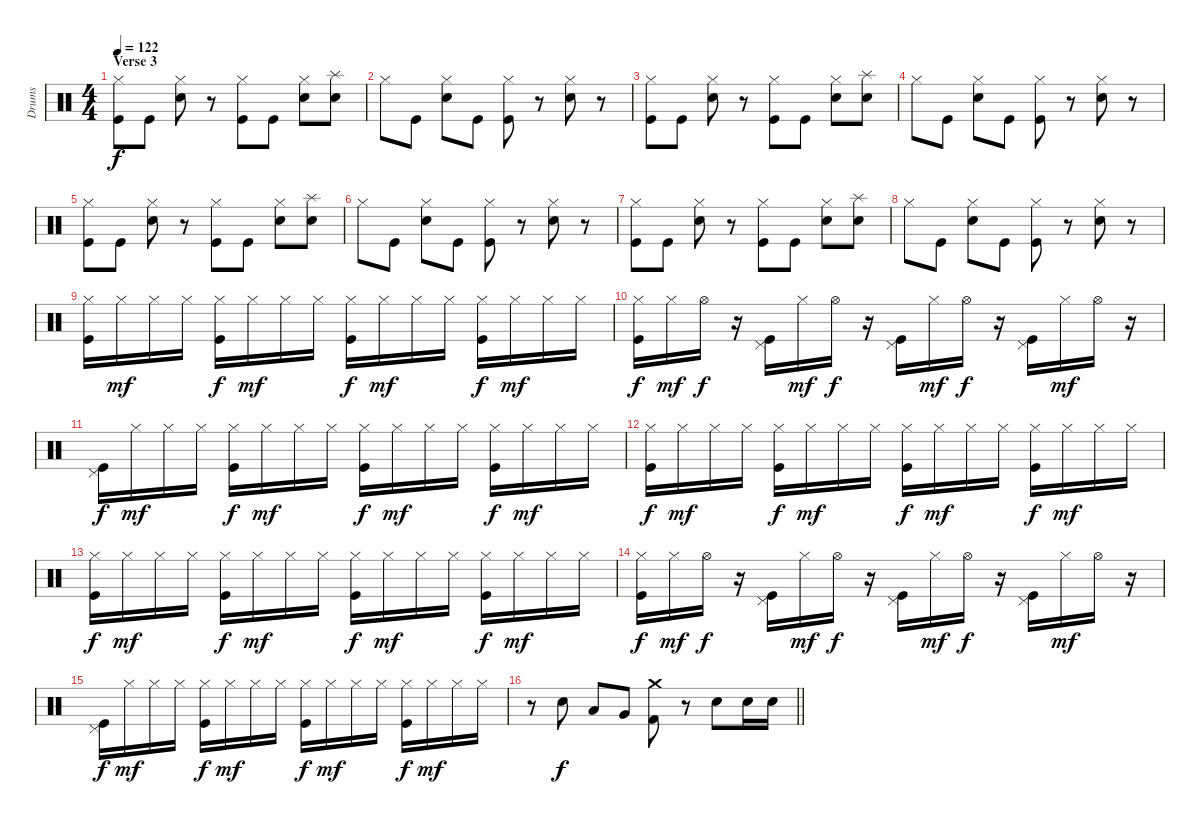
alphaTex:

\track ("Drums" "Drums") {instrument percussion}
\staff {score}
\articulation defaults
\ts (4 4)
\section ("" "Verse 3")
\tempo 122
\clef neutral
\ks c
("Hi-Hat (closed)" "Kick (hit)").8{dy f} "Kick (hit)".8 ("Hi-Hat (closed)" "Snare (hit) 2").8 r.8 ("Hi-Hat (closed)" "Kick (hit)").8 "Kick (hit)".8 ("Hi-Hat (closed)" "Hand Clap (hit)").8 ("Splash (hit)" "Electric Snare (hit)").8 |
"Hi-Hat (closed)".8 "Kick (hit)".8 ("Hi-Hat (closed)" "Snare (hit) 2").8 "Kick (hit)".8 ("Hi-Hat (closed)" "Kick (hit)").8 r.8 ("Hi-Hat (closed)" "Snare (hit) 2").8 r.8 |
("Hi-Hat (closed)" "Kick (hit)").8 "Kick (hit)".8 ("Hi-Hat (closed)" "Snare (hit) 2").8 r.8 ("Hi-Hat (closed)" "Kick (hit)").8 "Kick (hit)".8 ("Hi-Hat (closed)" "Hand Clap (hit)").8 ("Splash (hit)" "Electric Snare (hit)").8 |
"Hi-Hat (closed)".8 "Kick (hit)".8 ("Hi-Hat (closed)" "Snare (hit) 2").8 "Kick (hit)".8 ("Hi-Hat (closed)" "Kick (hit)").8 r.8 ("Hi-Hat (closed)" "Snare (hit) 2").8 r.8 |
("Hi-Hat (closed)" "Kick (hit)").8 "Kick (hit)".8 ("Hi-Hat (closed)" "Snare (hit) 2").8 r.8 ("Hi-Hat (closed)" "Kick (hit)").8 "Kick (hit)".8 ("Hi-Hat (closed)" "Hand Clap (hit)").8 ("Splash (hit)" "Electric Snare (hit)").8 |
"Hi-Hat (closed)".8 "Kick (hit)".8 ("Hi-Hat (closed)" "Snare (hit) 2").8 "Kick (hit)".8 ("Hi-Hat (closed)" "Kick (hit)").8 r.8 ("Hi-Hat (closed)" "Snare (hit) 2").8 r.8 |
("Hi-Hat (closed)" "Kick (hit)").8 "Kick (hit)".8 ("Hi-Hat (closed)" "Snare (hit) 2").8 r.8 ("Hi-Hat (closed)" "Kick (hit)").8 "Kick (hit)".8 ("Hi-Hat (closed)" "Hand Clap (hit)").8 ("Splash (hit)" "Electric Snare (hit)").8 |
"Hi-Hat (closed)".8 "Kick (hit)".8 ("Hi-Hat (closed)" "Snare (hit) 2").8 "Kick (hit)".8 ("Hi-Hat (closed)" "Kick (hit)").8 r.8 ("Hi-Hat (closed)" "Snare (hit) 2").8 r.8 |
("Hi-Hat (closed)" "Kick (hit)").16 "Hi-Hat (closed)".16{dy mf} "Hi-Hat (closed)".16 "Hi-Hat (closed)".16 ("Hi-Hat (closed)" "Kick (hit)").16{dy f} "Hi-Hat (closed)".16{dy mf} "Hi-Hat (closed)".16 "Hi-Hat (closed)".16 ("Hi-Hat (closed)" "Kick (hit)").16{dy f} "Hi-Hat (closed)".16{dy mf} "Hi-Hat (closed)".16 "Hi-Hat (closed)".16 ("Hi-Hat (closed)" "Kick (hit)").16{dy f} "Hi-Hat (closed)".16{dy mf} "Hi-Hat (closed)".16 "Hi-Hat (closed)".16 |
("Hi-Hat (closed)" "Kick (hit)").16{dy f} "Hi-Hat (closed)".16{dy mf} "Hi-Hat (open)".16{dy f} r.16 ("Pedal Hi-Hat (hit)" "Kick (hit)").16 "Hi-Hat (closed)".16{dy mf} "Hi-Hat (open)".16{dy f} r.16 ("Pedal Hi-Hat (hit)" "Kick (hit)").16 "Hi-Hat (closed)".16{dy mf} "Hi-Hat (open)".16{dy f} r.16 ("Pedal Hi-Hat (hit)" "Kick (hit)").16 "Hi-Hat (closed)".16{dy mf} "Hi-Hat (open)".16 r.16 |
("Pedal Hi-Hat (hit)" "Kick (hit)").16{dy f} "Hi-Hat (closed)".16{dy mf} "Hi-Hat (closed)".16 "Hi-Hat (closed)".16 ("Hi-Hat (closed)" "Kick (hit)").16{dy f} "Hi-Hat (closed)".16{dy mf} "Hi-Hat (closed)".16 "Hi-Hat (closed)".16 ("Hi-Hat (closed)" "Kick (hit)").16{dy f} "Hi-Hat (closed)".16{dy mf} "Hi-Hat (closed)".16 "Hi-Hat (closed)".16 ("Hi-Hat (closed)" "Kick (hit)").16{dy f} "Hi-Hat (closed)".16{dy mf} "Hi-Hat (closed)".16 "Hi-Hat (closed)".16 |
("Hi-Hat (closed)" "Kick (hit)").16{dy f} "Hi-Hat (closed)".16{dy mf} "Hi-Hat (closed)".16 "Hi-Hat (closed)".16 ("Hi-Hat (closed)" "Kick (hit)").16{dy f} "Hi-Hat (closed)".16{dy mf} "Hi-Hat (closed)".16 "Hi-Hat (closed)".16 ("Hi-Hat (closed)" "Kick (hit)").16{dy f} "Hi-Hat (closed)".16{dy mf} "Hi-Hat (closed)".16 "Hi-Hat (closed)".16 ("Hi-Hat (closed)" "Kick (hit)").16{dy f} "Hi-Hat (closed)".16{dy mf} "Hi-Hat (closed)".16 "Hi-Hat (closed)".16 |
("Hi-Hat (closed)" "Kick (hit)").16{dy f} "Hi-Hat (closed)".16{dy mf} "Hi-Hat (closed)".16 "Hi-Hat (closed)".16 ("Hi-Hat (closed)" "Kick (hit)").16{dy f} "Hi-Hat (closed)".16{dy mf} "Hi-Hat (closed)".16 "Hi-Hat (closed)".16 ("Hi-Hat (closed)" "Kick (hit)").16{dy f} "Hi-Hat (closed)".16{dy mf} "Hi-Hat (closed)".16 "Hi-Hat (closed)".16 ("Hi-Hat (closed)" "Kick (hit)").16{dy f} "Hi-Hat (closed)".16{dy mf} "Hi-Hat (closed)".16 "Hi-Hat (closed)".16 |
("Hi-Hat (closed)" "Kick (hit)").16{dy f} "Hi-Hat (closed)".16{dy mf} "Hi-Hat (open)".16{dy f} r.16 ("Pedal Hi-Hat (hit)" "Kick (hit)").16 "Hi-Hat (closed)".16{dy mf} "Hi-Hat (open)".16{dy f} r.16 ("Pedal Hi-Hat (hit)" "Kick (hit)").16 "Hi-Hat (closed)".16{dy mf} "Hi-Hat (open)".16{dy f} r.16 ("Pedal Hi-Hat (hit)" "Kick (hit)").16 "Hi-Hat (closed)".16{dy mf} "Hi-Hat (open)".16 r.16 |
("Pedal Hi-Hat (hit)" "Kick (hit)").16{dy f} "Hi-Hat (closed)".16{dy mf} "Hi-Hat (closed)".16 "Hi-Hat (closed)".16 ("Hi-Hat (closed)" "Kick (hit)").16{dy f} "Hi-Hat (closed)".16{dy mf} "Hi-Hat (closed)".16 "Hi-Hat (closed)".16 ("Hi-Hat (closed)" "Kick (hit)").16{dy f} "Hi-Hat (closed)".16{dy mf} "Hi-Hat (closed)".16 "Hi-Hat (closed)".16 ("Hi-Hat (closed)" "Kick (hit)").16{dy f} "Hi-Hat (closed)".16{dy mf} "Hi-Hat (closed)".16 "Hi-Hat (closed)".16 |
\barLineRight lightlight
r.8 "Snare (hit) 2".8{dy f} "Low Tom (hit)".8 "Very Low Tom (hit)".8 ("Crash medium (hit)" "Kick (hit) 2").8 r.8 "Snare (hit) 2".8 "Snare (hit) 2".16 "Snare (hit) 2".16
